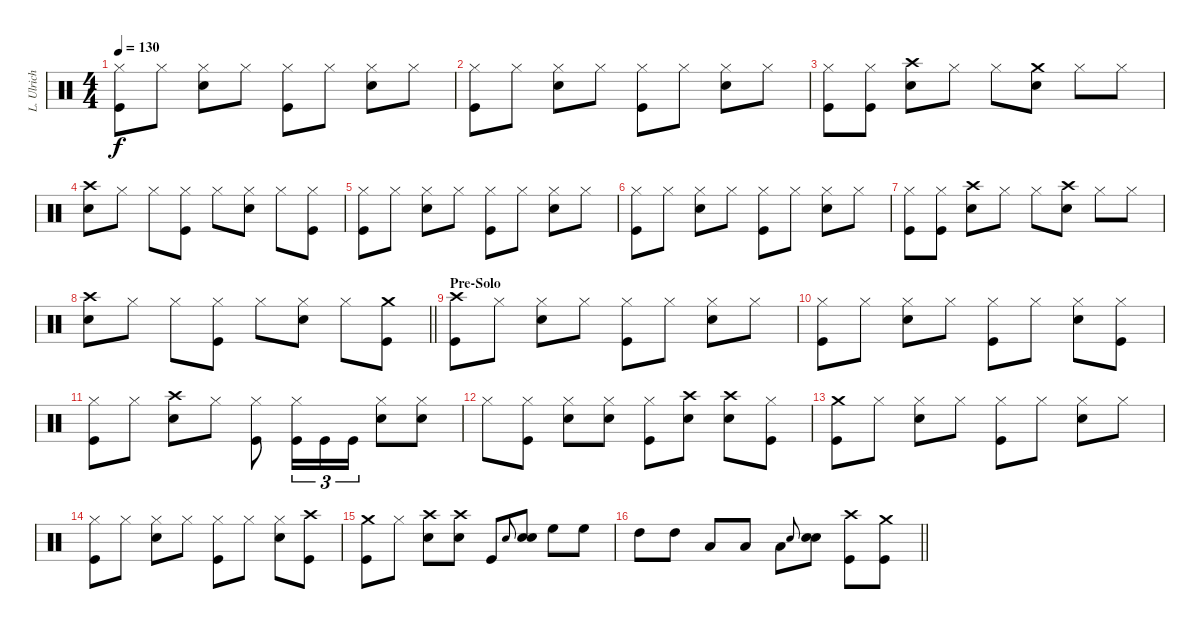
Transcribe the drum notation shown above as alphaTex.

\track ("L. Ulrich" "L. Ulrich") {instrument percussion}
\staff {score}
\articulation defaults
\ts (4 4)
\tempo 130
\clef neutral
\ks c
("Hi-Hat (closed)" "Kick (hit)").8{dy f} "Hi-Hat (closed)".8 ("Hi-Hat (closed)" "Snare (hit) 2").8 "Hi-Hat (closed)".8 ("Hi-Hat (closed)" "Kick (hit)").8 "Hi-Hat (closed)".8 ("Hi-Hat (closed)" "Snare (hit) 2").8 "Hi-Hat (closed)".8 |
("Hi-Hat (closed)" "Kick (hit)").8 "Hi-Hat (closed)".8 ("Hi-Hat (closed)" "Snare (hit) 2").8 "Hi-Hat (closed)".8 ("Hi-Hat (closed)" "Kick (hit)").8 "Hi-Hat (closed)".8 ("Hi-Hat (closed)" "Snare (hit) 2").8 "Hi-Hat (closed)".8 |
("Hi-Hat (closed)" "Kick (hit)").8 ("Hi-Hat (closed)" "Kick (hit)").8 ("Crash high (hit)" "Snare (hit) 2").8 "Hi-Hat (closed)".8 "Hi-Hat (closed)".8 ("Crash medium (hit)" "Snare (hit) 2").8 "Hi-Hat (closed)".8 "Hi-Hat (closed)".8 |
("Crash high (hit)" "Snare (hit) 2").8 "Hi-Hat (closed)".8 "Hi-Hat (closed)".8 ("Hi-Hat (closed)" "Kick (hit)").8 "Hi-Hat (closed)".8 ("Hi-Hat (closed)" "Snare (hit) 2").8 "Hi-Hat (closed)".8 ("Hi-Hat (closed)" "Kick (hit)").8 |
("Hi-Hat (closed)" "Kick (hit)").8 "Hi-Hat (closed)".8 ("Hi-Hat (closed)" "Snare (hit) 2").8 "Hi-Hat (closed)".8 ("Hi-Hat (closed)" "Kick (hit)").8 "Hi-Hat (closed)".8 ("Hi-Hat (closed)" "Snare (hit) 2").8 "Hi-Hat (closed)".8 |
("Hi-Hat (closed)" "Kick (hit)").8 "Hi-Hat (closed)".8 ("Hi-Hat (closed)" "Snare (hit) 2").8 "Hi-Hat (closed)".8 ("Hi-Hat (closed)" "Kick (hit)").8 "Hi-Hat (closed)".8 ("Hi-Hat (closed)" "Snare (hit) 2").8 "Hi-Hat (closed)".8 |
("Hi-Hat (closed)" "Kick (hit)").8 ("Hi-Hat (closed)" "Kick (hit)").8 ("Crash high (hit)" "Snare (hit) 2").8 "Hi-Hat (closed)".8 "Hi-Hat (closed)".8 ("Crash high (hit)" "Snare (hit) 2").8 "Hi-Hat (closed)".8 "Hi-Hat (closed)".8 |
\barLineRight lightlight
("Crash high (hit)" "Snare (hit) 2").8 "Hi-Hat (closed)".8 "Hi-Hat (closed)".8 ("Hi-Hat (closed)" "Kick (hit)").8 "Hi-Hat (closed)".8 ("Hi-Hat (closed)" "Snare (hit) 2").8 "Hi-Hat (closed)".8 ("Crash medium (hit)" "Kick (hit)").8 |
\section ("" "Pre-Solo")
("Crash high (hit)" "Kick (hit)").8 "Hi-Hat (closed)".8 ("Hi-Hat (closed)" "Snare (hit) 2").8 "Hi-Hat (closed)".8 ("Hi-Hat (closed)" "Kick (hit)").8 "Hi-Hat (closed)".8 ("Hi-Hat (closed)" "Snare (hit) 2").8 "Hi-Hat (closed)".8 |
("Hi-Hat (closed)" "Kick (hit)").8 "Hi-Hat (closed)".8 ("Hi-Hat (closed)" "Snare (hit) 2").8 "Hi-Hat (closed)".8 ("Hi-Hat (closed)" "Kick (hit)").8 "Hi-Hat (closed)".8 ("Hi-Hat (closed)" "Snare (hit) 2").8 ("Hi-Hat (closed)" "Kick (hit)").8 |
("Hi-Hat (closed)" "Kick (hit)").8 "Hi-Hat (closed)".8 ("Crash high (hit)" "Snare (hit) 2").8 "Hi-Hat (closed)".8 ("Hi-Hat (closed)" "Kick (hit)").8 ("Hi-Hat (closed)" "Kick (hit)").16{tu (3 2)} "Kick (hit)".16{tu (3 2)} "Kick (hit)".16{tu (3 2)} ("Hi-Hat (closed)" "Snare (hit) 2").8 ("Hi-Hat (closed)" "Snare (hit) 2").8 |
"Hi-Hat (closed)".8 ("Hi-Hat (closed)" "Kick (hit)").8 ("Hi-Hat (closed)" "Snare (hit) 2").8 ("Hi-Hat (closed)" "Snare (hit) 2").8 ("Hi-Hat (closed)" "Kick (hit)").8 ("Crash high (hit)" "Snare (hit) 2").8 ("Crash high (hit)" "Snare (hit) 2").8 ("Hi-Hat (closed)" "Kick (hit)").8 |
("Crash medium (hit)" "Kick (hit)").8 "Hi-Hat (closed)".8 ("Hi-Hat (closed)" "Snare (hit) 2").8 "Hi-Hat (closed)".8 ("Hi-Hat (closed)" "Kick (hit)").8 "Hi-Hat (closed)".8 ("Hi-Hat (closed)" "Snare (hit) 2").8 "Hi-Hat (closed)".8 |
("Hi-Hat (closed)" "Kick (hit)").8 "Hi-Hat (closed)".8 ("Hi-Hat (closed)" "Snare (hit) 2").8 "Hi-Hat (closed)".8 ("Hi-Hat (closed)" "Kick (hit)").8 "Hi-Hat (closed)".8 ("Hi-Hat (closed)" "Snare (hit) 2").8 ("Crash high (hit)" "Kick (hit)").8 |
("Crash medium (hit)" "Kick (hit)").8 "Hi-Hat (closed)".8 ("Crash high (hit)" "Snare (hit) 2").8 ("Crash high (hit)" "Snare (hit) 2").8 "Kick (hit)".8 "Snare (hit) 2".8{gr onbeat} ("Snare (hit) 2" "Snare (hit) 2").8 "High Floor Tom (hit)".8 "High Floor Tom (hit)".8 |
\barLineRight lightlight "High Tom (hit)".8 "High Tom (hit)".8 "Low Tom (hit)".8 "Low Tom (hit)".8 "Low Floor Tom (hit)".8 "Snare (hit) 2".8{gr onbeat}
("Snare (hit) 2" "Snare (hit) 2").8 ("Crash high (hit)" "Kick (hit)").8 ("Crash medium (hit)" "Kick (hit)").8
